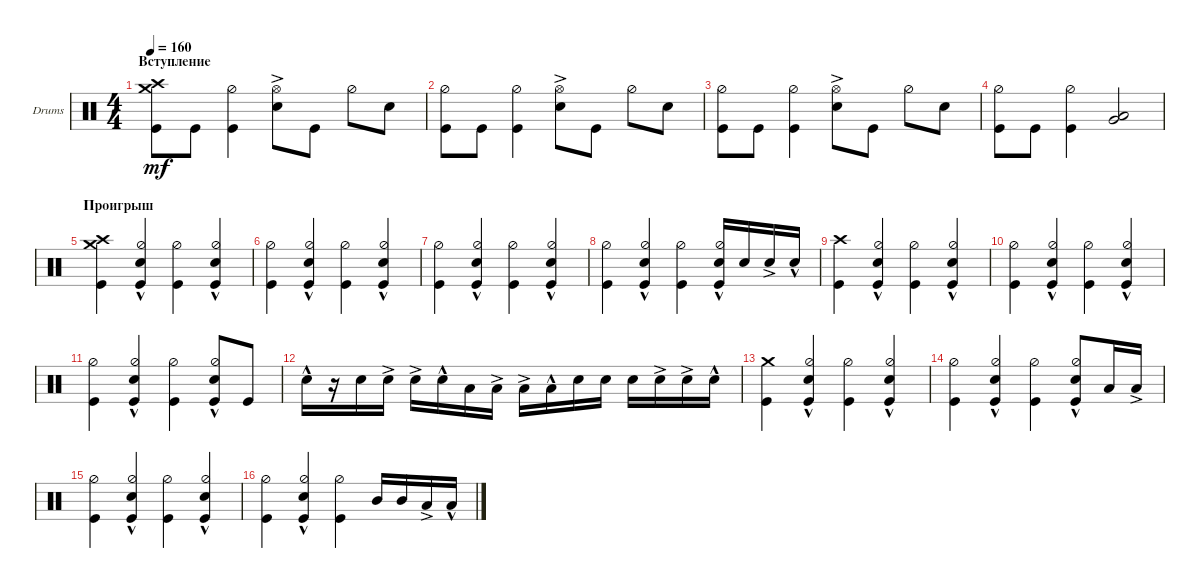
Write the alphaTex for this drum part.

\defaultSystemsLayout 4
\bracketExtendMode groupsimilarinstruments
\firstSystemTrackNameOrientation horizontal
\otherSystemsTrackNameOrientation horizontal
\track ("Drumkit" "Drums") {instrument percussion}
\staff {score}
\articulation defaults
\ts (4 4)
\section ("" "Вступление")
\tempo 160
\clef neutral
\ks c
("Kick (hit)" "Crash medium (hit)" "Crash high (hit)").8{dy mf} "Kick (hit)".8 ("Kick (hit)" "Hi-Hat (half)").4 ("Snare (hit) 2"{ac} "Hi-Hat (open)").8 "Kick (hit)".8 "Hi-Hat (half)".8 "Snare (hit) 2".8 |
("Kick (hit)" "Hi-Hat (half)").8 "Kick (hit)".8 ("Kick (hit)" "Hi-Hat (half)").4 ("Snare (hit) 2"{ac} "Hi-Hat (open)").8 "Kick (hit)".8 "Hi-Hat (half)".8 "Snare (hit) 2".8 |
("Kick (hit)" "Hi-Hat (half)").8 "Kick (hit)".8 ("Kick (hit)" "Hi-Hat (half)").4 ("Snare (hit) 2"{ac} "Hi-Hat (open)").8 "Kick (hit)".8 "Hi-Hat (half)".8 "Snare (hit) 2".8 |
("Kick (hit)" "Hi-Hat (half)").8 "Kick (hit)".8 ("Kick (hit)" "Hi-Hat (half)").4 ("Low Tom (hit)" "Very Low Tom (hit)").2 |
\section ("" "Проигрыш")
("Kick (hit)" "Crash medium (hit)" "Crash high (hit)").4 ("Kick (hit)" "Snare (hit) 2"{hac} "Hi-Hat (half)").4 ("Kick (hit)" "Hi-Hat (half)").4 ("Kick (hit)" "Snare (hit) 2"{hac} "Hi-Hat (half)").4 |
("Kick (hit)" "Hi-Hat (half)").4 ("Kick (hit)" "Snare (hit) 2"{hac} "Hi-Hat (half)").4 ("Kick (hit)" "Hi-Hat (half)").4 ("Kick (hit)" "Snare (hit) 2"{hac} "Hi-Hat (half)").4 |
("Kick (hit)" "Hi-Hat (half)").4 ("Kick (hit)" "Snare (hit) 2"{hac} "Hi-Hat (half)").4 ("Kick (hit)" "Hi-Hat (half)").4 ("Kick (hit)" "Snare (hit) 2"{hac} "Hi-Hat (half)").4 |
("Kick (hit)" "Hi-Hat (half)").4 ("Kick (hit)" "Snare (hit) 2"{hac} "Hi-Hat (half)").4 ("Kick (hit)" "Hi-Hat (half)").4 ("Kick (hit)" "Snare (hit) 2"{hac} "Hi-Hat (half)").16 "Snare (hit) 2".16 "Snare (hit) 2"{ac}.16 "Snare (hit) 2"{hac}.16 |
("Kick (hit)" "Crash high (hit)").4 ("Kick (hit)" "Snare (hit) 2"{hac} "Hi-Hat (half)").4 ("Kick (hit)" "Hi-Hat (half)").4 ("Kick (hit)" "Snare (hit) 2"{hac} "Hi-Hat (half)").4 |
("Kick (hit)" "Hi-Hat (half)").4 ("Kick (hit)" "Snare (hit) 2"{hac} "Hi-Hat (half)").4 ("Kick (hit)" "Hi-Hat (half)").4 ("Kick (hit)" "Snare (hit) 2"{hac} "Hi-Hat (half)").4 |
("Kick (hit)" "Hi-Hat (half)").4 ("Kick (hit)" "Snare (hit) 2"{hac} "Hi-Hat (half)").4 ("Kick (hit)" "Hi-Hat (half)").4 ("Kick (hit)" "Snare (hit) 2"{hac} "Hi-Hat (half)").8 "Kick (hit)".8 |
"Snare (hit) 2"{hac}.16 r.16 "Snare (hit) 2".16 "Snare (hit) 2"{ac}.16 "Snare (hit) 2"{ac}.16 "Snare (hit) 2"{hac}.16 "Low Tom (hit)".16 "Low Tom (hit)"{ac}.16 "Low Tom (hit)"{ac}.16 "Low Tom (hit)"{hac}.16 "Snare (hit) 2".16 "Snare (hit) 2".16 "Snare (hit) 2".16 "Snare (hit) 2"{ac}.16 "Snare (hit) 2"{ac}.16 "Snare (hit) 2"{hac}.16 |
("Kick (hit)" "Crash medium (hit)").4 ("Kick (hit)" "Snare (hit) 2"{hac} "Hi-Hat (half)").4 ("Kick (hit)" "Hi-Hat (half)").4 ("Kick (hit)" "Snare (hit) 2"{hac} "Hi-Hat (half)").4 |
("Kick (hit)" "Hi-Hat (half)").4 ("Kick (hit)" "Snare (hit) 2"{hac} "Hi-Hat (half)").4 ("Kick (hit)" "Hi-Hat (half)").4 ("Kick (hit)" "Snare (hit) 2"{hac} "Hi-Hat (half)").8 "Low Tom (hit)".16 "Low Tom (hit)"{ac}.16 |
("Kick (hit)" "Hi-Hat (half)").4 ("Kick (hit)" "Snare (hit) 2"{hac} "Hi-Hat (half)").4 ("Kick (hit)" "Hi-Hat (half)").4 ("Kick (hit)" "Snare (hit) 2"{hac} "Hi-Hat (half)").4 |
("Kick (hit)" "Hi-Hat (half)").4 ("Kick (hit)" "Snare (hit) 2"{hac} "Hi-Hat (half)").4 ("Kick (hit)" "Hi-Hat (half)").4 "Mid Tom (hit)".16 "Mid Tom (hit)".16 "Low Tom (hit)"{ac}.16 "Low Tom (hit)"{hac}.16
